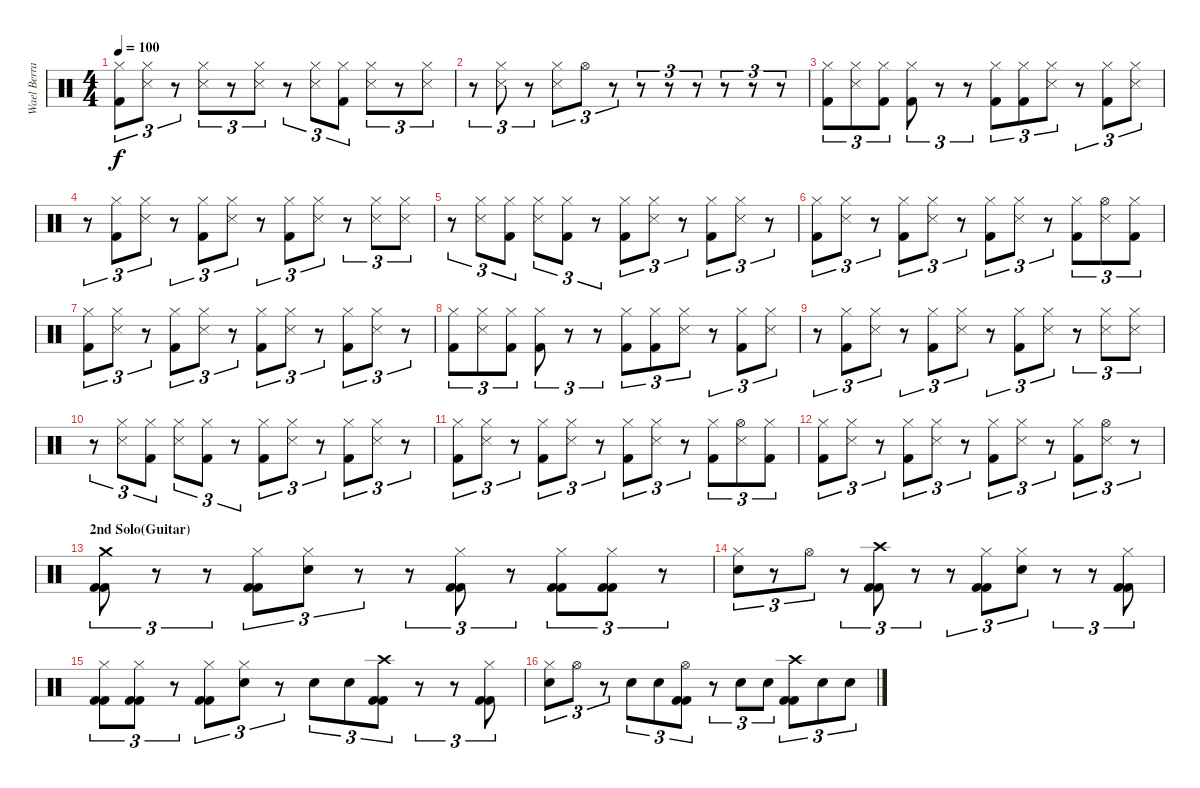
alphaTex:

\track ("Wael Berrais" "Wael Berra") {instrument percussion}
\staff {score}
\articulation defaults
\ts (4 4)
\tempo 100
\clef neutral
\ks c
("Hi-Hat (closed)" "Kick (hit) 2").8{tu (3 2) dy f} ("Hi-Hat (closed)" "Snare (side stick) 3").8{tu (3 2)} r.8{tu (3 2)} ("Hi-Hat (closed)" "Snare (side stick) 3").8{tu (3 2)} r.8{tu (3 2)} ("Hi-Hat (closed)" "Snare (side stick) 3").8{tu (3 2)} r.8{tu (3 2)} ("Hi-Hat (closed)" "Snare (side stick) 3").8{tu (3 2)} ("Hi-Hat (closed)" "Kick (hit) 2").8{tu (3 2)} ("Hi-Hat (closed)" "Snare (side stick) 3").8{tu (3 2)} r.8{tu (3 2)} ("Hi-Hat (closed)" "Snare (side stick) 3").8{tu (3 2)} |
r.8{tu (3 2)} ("Hi-Hat (closed)" "Snare (side stick) 3").8{tu (3 2)} r.8{tu (3 2)} ("Hi-Hat (closed)" "Snare (side stick) 3").8{tu (3 2)} "Hi-Hat (open)".8{tu (3 2)} r.8{tu (3 2)} r.8{tu (3 2)} r.8{tu (3 2)} r.8{tu (3 2)} r.8{tu (3 2)} r.8{tu (3 2)} r.8{tu (3 2)} |
("Hi-Hat (closed)" "Kick (hit) 2").8{tu (3 2)} ("Hi-Hat (closed)" "Snare (side stick) 3").8{tu (3 2)} ("Hi-Hat (closed)" "Kick (hit) 2").8{tu (3 2)} ("Hi-Hat (closed)" "Kick (hit) 2").8{tu (3 2)} r.8{tu (3 2)} r.8{tu (3 2)} ("Hi-Hat (closed)" "Kick (hit) 2").8{tu (3 2)} ("Hi-Hat (closed)" "Kick (hit) 2").8{tu (3 2)} ("Hi-Hat (closed)" "Snare (side stick) 3").8{tu (3 2)} r.8{tu (3 2)} ("Hi-Hat (closed)" "Kick (hit) 2").8{tu (3 2)} ("Hi-Hat (closed)" "Snare (side stick) 3").8{tu (3 2)} |
r.8{tu (3 2)} ("Hi-Hat (closed)" "Kick (hit) 2").8{tu (3 2)} ("Hi-Hat (closed)" "Snare (side stick) 3").8{tu (3 2)} r.8{tu (3 2)} ("Hi-Hat (closed)" "Kick (hit) 2").8{tu (3 2)} ("Hi-Hat (closed)" "Snare (side stick) 3").8{tu (3 2)} r.8{tu (3 2)} ("Hi-Hat (closed)" "Kick (hit) 2").8{tu (3 2)} ("Hi-Hat (closed)" "Snare (side stick) 3").8{tu (3 2)} r.8{tu (3 2)} ("Hi-Hat (closed)" "Snare (side stick) 3").8{tu (3 2)} ("Hi-Hat (closed)" "Snare (side stick) 3").8{tu (3 2)} |
r.8{tu (3 2)} ("Hi-Hat (closed)" "Snare (side stick) 3").8{tu (3 2)} ("Hi-Hat (closed)" "Kick (hit) 2").8{tu (3 2)} ("Hi-Hat (closed)" "Snare (side stick) 3").8{tu (3 2)} ("Hi-Hat (closed)" "Kick (hit) 2").8{tu (3 2)} r.8{tu (3 2)} ("Hi-Hat (closed)" "Kick (hit) 2").8{tu (3 2)} ("Hi-Hat (closed)" "Snare (side stick) 3").8{tu (3 2)} r.8{tu (3 2)} ("Hi-Hat (closed)" "Kick (hit) 2").8{tu (3 2)} ("Hi-Hat (closed)" "Snare (side stick) 3").8{tu (3 2)} r.8{tu (3 2)} |
("Hi-Hat (closed)" "Kick (hit) 2").8{tu (3 2)} ("Hi-Hat (closed)" "Snare (side stick) 3").8{tu (3 2)} r.8{tu (3 2)} ("Hi-Hat (closed)" "Kick (hit) 2").8{tu (3 2)} ("Hi-Hat (closed)" "Snare (side stick) 3").8{tu (3 2)} r.8{tu (3 2)} ("Hi-Hat (closed)" "Kick (hit) 2").8{tu (3 2)} ("Hi-Hat (closed)" "Snare (side stick) 3").8{tu (3 2)} r.8{tu (3 2)} ("Hi-Hat (closed)" "Kick (hit) 2").8{tu (3 2)} ("Hi-Hat (open)" "Snare (side stick) 3").8{tu (3 2)} ("Hi-Hat (closed)" "Kick (hit) 2").8{tu (3 2)} |
("Hi-Hat (closed)" "Kick (hit) 2").8{tu (3 2)} ("Hi-Hat (closed)" "Snare (side stick) 3").8{tu (3 2)} r.8{tu (3 2)} ("Hi-Hat (closed)" "Kick (hit) 2").8{tu (3 2)} ("Hi-Hat (closed)" "Snare (side stick) 3").8{tu (3 2)} r.8{tu (3 2)} ("Hi-Hat (closed)" "Kick (hit) 2").8{tu (3 2)} ("Hi-Hat (closed)" "Snare (side stick) 3").8{tu (3 2)} r.8{tu (3 2)} ("Hi-Hat (closed)" "Kick (hit) 2").8{tu (3 2)} ("Hi-Hat (closed)" "Snare (side stick) 3").8{tu (3 2)} r.8{tu (3 2)} |
("Hi-Hat (closed)" "Kick (hit) 2").8{tu (3 2)} ("Hi-Hat (closed)" "Snare (side stick) 3").8{tu (3 2)} ("Hi-Hat (closed)" "Kick (hit) 2").8{tu (3 2)} ("Hi-Hat (closed)" "Kick (hit) 2").8{tu (3 2)} r.8{tu (3 2)} r.8{tu (3 2)} ("Hi-Hat (closed)" "Kick (hit) 2").8{tu (3 2)} ("Hi-Hat (closed)" "Kick (hit) 2").8{tu (3 2)} ("Hi-Hat (closed)" "Snare (side stick) 3").8{tu (3 2)} r.8{tu (3 2)} ("Hi-Hat (closed)" "Kick (hit) 2").8{tu (3 2)} ("Hi-Hat (closed)" "Snare (side stick) 3").8{tu (3 2)} |
r.8{tu (3 2)} ("Hi-Hat (closed)" "Kick (hit) 2").8{tu (3 2)} ("Hi-Hat (closed)" "Snare (side stick) 3").8{tu (3 2)} r.8{tu (3 2)} ("Hi-Hat (closed)" "Kick (hit) 2").8{tu (3 2)} ("Hi-Hat (closed)" "Snare (side stick) 3").8{tu (3 2)} r.8{tu (3 2)} ("Hi-Hat (closed)" "Kick (hit) 2").8{tu (3 2)} ("Hi-Hat (closed)" "Snare (side stick) 3").8{tu (3 2)} r.8{tu (3 2)} ("Hi-Hat (closed)" "Snare (side stick) 3").8{tu (3 2)} ("Hi-Hat (closed)" "Snare (side stick) 3").8{tu (3 2)} |
r.8{tu (3 2)} ("Hi-Hat (closed)" "Snare (side stick) 3").8{tu (3 2)} ("Hi-Hat (closed)" "Kick (hit) 2").8{tu (3 2)} ("Hi-Hat (closed)" "Snare (side stick) 3").8{tu (3 2)} ("Hi-Hat (closed)" "Kick (hit) 2").8{tu (3 2)} r.8{tu (3 2)} ("Hi-Hat (closed)" "Kick (hit) 2").8{tu (3 2)} ("Hi-Hat (closed)" "Snare (side stick) 3").8{tu (3 2)} r.8{tu (3 2)} ("Hi-Hat (closed)" "Kick (hit) 2").8{tu (3 2)} ("Hi-Hat (closed)" "Snare (side stick) 3").8{tu (3 2)} r.8{tu (3 2)} |
("Hi-Hat (closed)" "Kick (hit) 2").8{tu (3 2)} ("Hi-Hat (closed)" "Snare (side stick) 3").8{tu (3 2)} r.8{tu (3 2)} ("Hi-Hat (closed)" "Kick (hit) 2").8{tu (3 2)} ("Hi-Hat (closed)" "Snare (side stick) 3").8{tu (3 2)} r.8{tu (3 2)} ("Hi-Hat (closed)" "Kick (hit) 2").8{tu (3 2)} ("Hi-Hat (closed)" "Snare (side stick) 3").8{tu (3 2)} r.8{tu (3 2)} ("Hi-Hat (closed)" "Kick (hit) 2").8{tu (3 2)} ("Hi-Hat (open)" "Snare (side stick) 3").8{tu (3 2)} ("Hi-Hat (closed)" "Kick (hit) 2").8{tu (3 2)} |
("Hi-Hat (closed)" "Kick (hit) 2").8{tu (3 2)} ("Hi-Hat (closed)" "Snare (side stick) 3").8{tu (3 2)} r.8{tu (3 2)} ("Hi-Hat (closed)" "Kick (hit) 2").8{tu (3 2)} ("Hi-Hat (closed)" "Snare (side stick) 3").8{tu (3 2)} r.8{tu (3 2)} ("Hi-Hat (closed)" "Kick (hit) 2").8{tu (3 2)} ("Hi-Hat (closed)" "Snare (side stick) 3").8{tu (3 2)} r.8{tu (3 2)} ("Hi-Hat (closed)" "Kick (hit) 2").8{tu (3 2)} ("Hi-Hat (open)" "Snare (side stick) 3").8{tu (3 2)} r.8{tu (3 2)} |
\section ("" "2nd Solo(Guitar)")
("Crash medium (hit)" "Kick (hit) 2" "Kick (hit) 2").8{tu (3 2)} r.8{tu (3 2)} r.8{tu (3 2)} ("Hi-Hat (closed)" "Kick (hit) 2" "Kick (hit) 2").8{tu (3 2)} ("Hi-Hat (closed)" "Electric Snare (hit)").8{tu (3 2)} r.8{tu (3 2)} r.8{tu (3 2)} ("Kick (hit) 2" "Kick (hit) 2" "Hi-Hat (closed)").8{tu (3 2)} r.8{tu (3 2)} ("Hi-Hat (closed)" "Kick (hit) 2" "Kick (hit) 2").8{tu (3 2)} ("Hi-Hat (closed)" "Kick (hit) 2" "Kick (hit) 2").8{tu (3 2)} r.8{tu (3 2)} |
("Electric Snare (hit)" "Hi-Hat (closed)").8{tu (3 2)} r.8{tu (3 2)} "Hi-Hat (open)".8{tu (3 2)} r.8{tu (3 2)} ("Crash high (hit)" "Kick (hit) 2" "Kick (hit) 2").8{tu (3 2)} r.8{tu (3 2)} r.8{tu (3 2)} ("Hi-Hat (closed)" "Kick (hit) 2" "Kick (hit) 2").8{tu (3 2)} ("Hi-Hat (closed)" "Electric Snare (hit)").8{tu (3 2)} r.8{tu (3 2)} r.8{tu (3 2)} ("Kick (hit) 2" "Kick (hit) 2" "Hi-Hat (closed)").8{tu (3 2)} |
("Hi-Hat (closed)" "Kick (hit) 2" "Kick (hit) 2").8{tu (3 2)} ("Hi-Hat (closed)" "Kick (hit) 2" "Kick (hit) 2").8{tu (3 2)} r.8{tu (3 2)} ("Hi-Hat (closed)" "Kick (hit) 2" "Kick (hit) 2").8{tu (3 2)} ("Electric Snare (hit)" "Hi-Hat (closed)").8{tu (3 2)} r.8{tu (3 2)} "Electric Snare (hit)".8{tu (3 2)} "Electric Snare (hit)".8{tu (3 2)} ("Crash high (hit)" "Kick (hit) 2" "Kick (hit) 2").8{tu (3 2)} r.8{tu (3 2)} r.8{tu (3 2)} ("Hi-Hat (closed)" "Kick (hit) 2" "Kick (hit) 2").8{tu (3 2)} |
("Electric Snare (hit)" "Hi-Hat (closed)").8{tu (3 2)} "Hi-Hat (open)".8{tu (3 2)} r.8{tu (3 2)} "Electric Snare (hit)".8{tu (3 2)} "Electric Snare (hit)".8{tu (3 2)} ("Hi-Hat (open)" "Kick (hit) 2" "Kick (hit) 2").8{tu (3 2)} r.8{tu (3 2)} "Electric Snare (hit)".8{tu (3 2)} "Electric Snare (hit)".8{tu (3 2)} ("Crash high (hit)" "Kick (hit) 2" "Kick (hit) 2").8{tu (3 2)} "Electric Snare (hit)".8{tu (3 2)} "Electric Snare (hit)".8{tu (3 2)}
